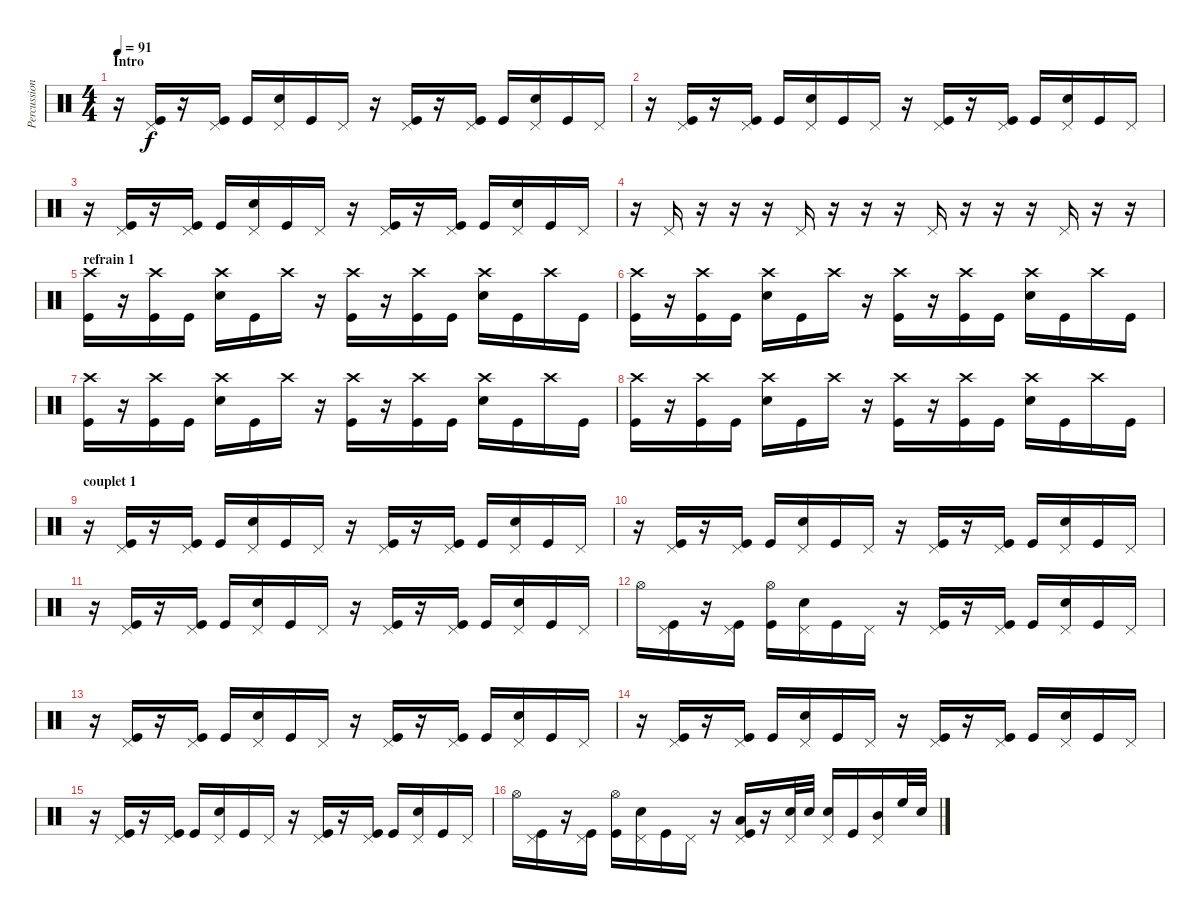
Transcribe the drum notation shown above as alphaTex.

\track ("Percussions (Nejo)" "Percussion") {instrument percussion}
\staff {score}
\articulation defaults
\ts (4 4)
\section ("" "Intro")
\tempo 91
\clef neutral
\ks c
r.16{dy f} ("Pedal Hi-Hat (hit)" "Kick (hit)").16 r.16 ("Pedal Hi-Hat (hit)" "Kick (hit)").16 "Kick (hit)".16 ("Pedal Hi-Hat (hit)" "Electric Snare (hit)").16 "Kick (hit)".16 "Pedal Hi-Hat (hit)".16 r.16 ("Pedal Hi-Hat (hit)" "Kick (hit)").16 r.16 ("Pedal Hi-Hat (hit)" "Kick (hit)").16 "Kick (hit)".16 ("Pedal Hi-Hat (hit)" "Electric Snare (hit)").16 "Kick (hit)".16 "Pedal Hi-Hat (hit)".16 |
r.16 ("Pedal Hi-Hat (hit)" "Kick (hit)").16 r.16 ("Pedal Hi-Hat (hit)" "Kick (hit)").16 "Kick (hit)".16 ("Pedal Hi-Hat (hit)" "Electric Snare (hit)").16 "Kick (hit)".16 "Pedal Hi-Hat (hit)".16 r.16 ("Pedal Hi-Hat (hit)" "Kick (hit)").16 r.16 ("Pedal Hi-Hat (hit)" "Kick (hit)").16 "Kick (hit)".16 ("Pedal Hi-Hat (hit)" "Electric Snare (hit)").16 "Kick (hit)".16 "Pedal Hi-Hat (hit)".16 |
r.16 ("Pedal Hi-Hat (hit)" "Kick (hit)").16 r.16 ("Pedal Hi-Hat (hit)" "Kick (hit)").16 "Kick (hit)".16 ("Pedal Hi-Hat (hit)" "Electric Snare (hit)").16 "Kick (hit)".16 "Pedal Hi-Hat (hit)".16 r.16 ("Pedal Hi-Hat (hit)" "Kick (hit)").16 r.16 ("Pedal Hi-Hat (hit)" "Kick (hit)").16 "Kick (hit)".16 ("Pedal Hi-Hat (hit)" "Electric Snare (hit)").16 "Kick (hit)".16 "Pedal Hi-Hat (hit)".16 |
r.16 "Pedal Hi-Hat (hit)".16 r.16 r.16 r.16 "Pedal Hi-Hat (hit)".16 r.16 r.16 r.16 "Pedal Hi-Hat (hit)".16 r.16 r.16 r.16 "Pedal Hi-Hat (hit)".16 r.16 r.16 |
\section ("" "refrain 1")
("Crash high (hit)" "Kick (hit)").16 r.16 ("Crash high (hit)" "Kick (hit)").16 "Kick (hit)".16 ("Crash high (hit)" "Electric Snare (hit)").16 "Kick (hit)".16 "Crash high (hit)".16 r.16 ("Crash high (hit)" "Kick (hit)").16 r.16 ("Crash high (hit)" "Kick (hit)").16 "Kick (hit)".16 ("Crash high (hit)" "Electric Snare (hit)").16 "Kick (hit)".16 "Crash high (hit)".16 "Kick (hit)".16 |
("Crash high (hit)" "Kick (hit)").16 r.16 ("Crash high (hit)" "Kick (hit)").16 "Kick (hit)".16 ("Crash high (hit)" "Electric Snare (hit)").16 "Kick (hit)".16 "Crash high (hit)".16 r.16 ("Crash high (hit)" "Kick (hit)").16 r.16 ("Crash high (hit)" "Kick (hit)").16 "Kick (hit)".16 ("Crash high (hit)" "Electric Snare (hit)").16 "Kick (hit)".16 "Crash high (hit)".16 "Kick (hit)".16 |
("Crash high (hit)" "Kick (hit)").16 r.16 ("Crash high (hit)" "Kick (hit)").16 "Kick (hit)".16 ("Crash high (hit)" "Electric Snare (hit)").16 "Kick (hit)".16 "Crash high (hit)".16 r.16 ("Crash high (hit)" "Kick (hit)").16 r.16 ("Crash high (hit)" "Kick (hit)").16 "Kick (hit)".16 ("Crash high (hit)" "Electric Snare (hit)").16 "Kick (hit)".16 "Crash high (hit)".16 "Kick (hit)".16 |
("Crash high (hit)" "Kick (hit)").16 r.16 ("Crash high (hit)" "Kick (hit)").16 "Kick (hit)".16 ("Crash high (hit)" "Electric Snare (hit)").16 "Kick (hit)".16 "Crash high (hit)".16 r.16 ("Crash high (hit)" "Kick (hit)").16 r.16 ("Crash high (hit)" "Kick (hit)").16 "Kick (hit)".16 ("Crash high (hit)" "Electric Snare (hit)").16 "Kick (hit)".16 "Crash high (hit)".16 "Kick (hit)".16 |
\section ("" "couplet 1")
r.16 ("Pedal Hi-Hat (hit)" "Kick (hit)").16 r.16 ("Pedal Hi-Hat (hit)" "Kick (hit)").16 "Kick (hit)".16 ("Pedal Hi-Hat (hit)" "Electric Snare (hit)").16 "Kick (hit)".16 "Pedal Hi-Hat (hit)".16 r.16 ("Pedal Hi-Hat (hit)" "Kick (hit)").16 r.16 ("Pedal Hi-Hat (hit)" "Kick (hit)").16 "Kick (hit)".16 ("Pedal Hi-Hat (hit)" "Electric Snare (hit)").16 "Kick (hit)".16 "Pedal Hi-Hat (hit)".16 |
r.16 ("Pedal Hi-Hat (hit)" "Kick (hit)").16 r.16 ("Pedal Hi-Hat (hit)" "Kick (hit)").16 "Kick (hit)".16 ("Pedal Hi-Hat (hit)" "Electric Snare (hit)").16 "Kick (hit)".16 "Pedal Hi-Hat (hit)".16 r.16 ("Pedal Hi-Hat (hit)" "Kick (hit)").16 r.16 ("Pedal Hi-Hat (hit)" "Kick (hit)").16 "Kick (hit)".16 ("Pedal Hi-Hat (hit)" "Electric Snare (hit)").16 "Kick (hit)".16 "Pedal Hi-Hat (hit)".16 |
r.16 ("Pedal Hi-Hat (hit)" "Kick (hit)").16 r.16 ("Pedal Hi-Hat (hit)" "Kick (hit)").16 "Kick (hit)".16 ("Pedal Hi-Hat (hit)" "Electric Snare (hit)").16 "Kick (hit)".16 "Pedal Hi-Hat (hit)".16 r.16 ("Pedal Hi-Hat (hit)" "Kick (hit)").16 r.16 ("Pedal Hi-Hat (hit)" "Kick (hit)").16 "Kick (hit)".16 ("Pedal Hi-Hat (hit)" "Electric Snare (hit)").16 "Kick (hit)".16 "Pedal Hi-Hat (hit)".16 |
"Hi-Hat (open)".16 ("Pedal Hi-Hat (hit)" "Kick (hit)").16 r.16 ("Pedal Hi-Hat (hit)" "Kick (hit)").16 ("Hi-Hat (open)" "Kick (hit)").16 ("Pedal Hi-Hat (hit)" "Electric Snare (hit)").16 "Kick (hit)".16 "Pedal Hi-Hat (hit)".16 r.16 ("Pedal Hi-Hat (hit)" "Kick (hit)").16 r.16 ("Pedal Hi-Hat (hit)" "Kick (hit)").16 "Kick (hit)".16 ("Pedal Hi-Hat (hit)" "Electric Snare (hit)").16 "Kick (hit)".16 "Pedal Hi-Hat (hit)".16 |
r.16 ("Pedal Hi-Hat (hit)" "Kick (hit)").16 r.16 ("Pedal Hi-Hat (hit)" "Kick (hit)").16 "Kick (hit)".16 ("Pedal Hi-Hat (hit)" "Electric Snare (hit)").16 "Kick (hit)".16 "Pedal Hi-Hat (hit)".16 r.16 ("Pedal Hi-Hat (hit)" "Kick (hit)").16 r.16 ("Pedal Hi-Hat (hit)" "Kick (hit)").16 "Kick (hit)".16 ("Pedal Hi-Hat (hit)" "Electric Snare (hit)").16 "Kick (hit)".16 "Pedal Hi-Hat (hit)".16 |
r.16 ("Pedal Hi-Hat (hit)" "Kick (hit)").16 r.16 ("Pedal Hi-Hat (hit)" "Kick (hit)").16 "Kick (hit)".16 ("Pedal Hi-Hat (hit)" "Electric Snare (hit)").16 "Kick (hit)".16 "Pedal Hi-Hat (hit)".16 r.16 ("Pedal Hi-Hat (hit)" "Kick (hit)").16 r.16 ("Pedal Hi-Hat (hit)" "Kick (hit)").16 "Kick (hit)".16 ("Pedal Hi-Hat (hit)" "Electric Snare (hit)").16 "Kick (hit)".16 "Pedal Hi-Hat (hit)".16 |
r.16 ("Pedal Hi-Hat (hit)" "Kick (hit)").16 r.16 ("Pedal Hi-Hat (hit)" "Kick (hit)").16 "Kick (hit)".16 ("Pedal Hi-Hat (hit)" "Electric Snare (hit)").16 "Kick (hit)".16 "Pedal Hi-Hat (hit)".16 r.16 ("Pedal Hi-Hat (hit)" "Kick (hit)").16 r.16 ("Pedal Hi-Hat (hit)" "Kick (hit)").16 "Kick (hit)".16 ("Pedal Hi-Hat (hit)" "Electric Snare (hit)").16 "Kick (hit)".16 "Pedal Hi-Hat (hit)".16 |
"Hi-Hat (open)".16 ("Pedal Hi-Hat (hit)" "Kick (hit)").16 r.16 ("Pedal Hi-Hat (hit)" "Kick (hit)").16 ("Hi-Hat (open)" "Kick (hit)").16 ("Pedal Hi-Hat (hit)" "Electric Snare (hit)").16 "Kick (hit)".16 "Pedal Hi-Hat (hit)".16 r.16 ("Pedal Hi-Hat (hit)" "Low Tom (hit)" "Kick (hit)").16 r.16 ("Pedal Hi-Hat (hit)" "Electric Snare (hit)").32 "Electric Snare (hit)".32 ("Pedal Hi-Hat (hit)" "Electric Snare (hit)").16 "Kick (hit)".16 ("Pedal Hi-Hat (hit)" "Mid Tom (hit)").16 "High Floor Tom (hit)".32 "Snare (hit) 2".32
